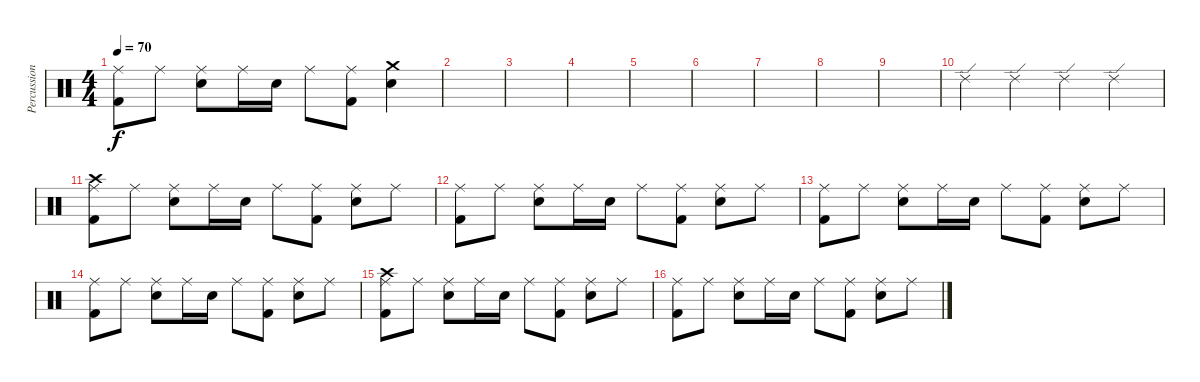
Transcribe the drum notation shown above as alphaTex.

\track ("Percussion" "Percussion") {instrument percussion}
\staff {score}
\articulation defaults
\ts (4 4)
\tempo 70
\clef neutral
\ks c
("Ride (middle)" "Kick (hit) 2").8{dy f} "Ride (middle)".8 ("Ride (middle)" "Electric Snare (hit)").8 "Ride (middle)".16 "Electric Snare (hit)".16 "Ride (middle)".8 ("Ride (middle)" "Kick (hit) 2").8 ("Crash medium (hit)" "Electric Snare (hit)").4 |
|
|
|
|
|
|
|
|
"Ride (edge) 2".4 "Ride (edge) 2".4 "Ride (edge) 2".4 "Ride (edge) 2".4 |
("Crash high (hit)" "Ride (middle)" "Kick (hit) 2").8 "Ride (middle)".8 ("Ride (middle)" "Electric Snare (hit)").8 "Ride (middle)".16 "Electric Snare (hit)".16 "Ride (middle)".8 ("Ride (middle)" "Kick (hit) 2").8 ("Ride (middle)" "Electric Snare (hit)").8 "Ride (middle)".8 |
("Ride (middle)" "Kick (hit) 2").8 "Ride (middle)".8 ("Ride (middle)" "Electric Snare (hit)").8 "Ride (middle)".16 "Electric Snare (hit)".16 "Ride (middle)".8 ("Ride (middle)" "Kick (hit) 2").8 ("Ride (middle)" "Electric Snare (hit)").8 "Ride (middle)".8 |
("Ride (middle)" "Kick (hit) 2").8 "Ride (middle)".8 ("Ride (middle)" "Electric Snare (hit)").8 "Ride (middle)".16 "Electric Snare (hit)".16 "Ride (middle)".8 ("Ride (middle)" "Kick (hit) 2").8 ("Ride (middle)" "Electric Snare (hit)").8 "Ride (middle)".8 |
("Ride (middle)" "Kick (hit) 2").8 "Ride (middle)".8 ("Ride (middle)" "Electric Snare (hit)").8 "Ride (middle)".16 "Electric Snare (hit)".16 "Ride (middle)".8 ("Ride (middle)" "Kick (hit) 2").8 ("Ride (middle)" "Electric Snare (hit)").8 "Ride (middle)".8 |
("Crash high (hit)" "Ride (middle)" "Kick (hit) 2").8 "Ride (middle)".8 ("Ride (middle)" "Electric Snare (hit)").8 "Ride (middle)".16 "Electric Snare (hit)".16 "Ride (middle)".8 ("Ride (middle)" "Kick (hit) 2").8 ("Ride (middle)" "Electric Snare (hit)").8 "Ride (middle)".8 |
("Ride (middle)" "Kick (hit) 2").8 "Ride (middle)".8 ("Ride (middle)" "Electric Snare (hit)").8 "Ride (middle)".16 "Electric Snare (hit)".16 "Ride (middle)".8 ("Ride (middle)" "Kick (hit) 2").8 ("Ride (middle)" "Electric Snare (hit)").8 "Ride (middle)".8
